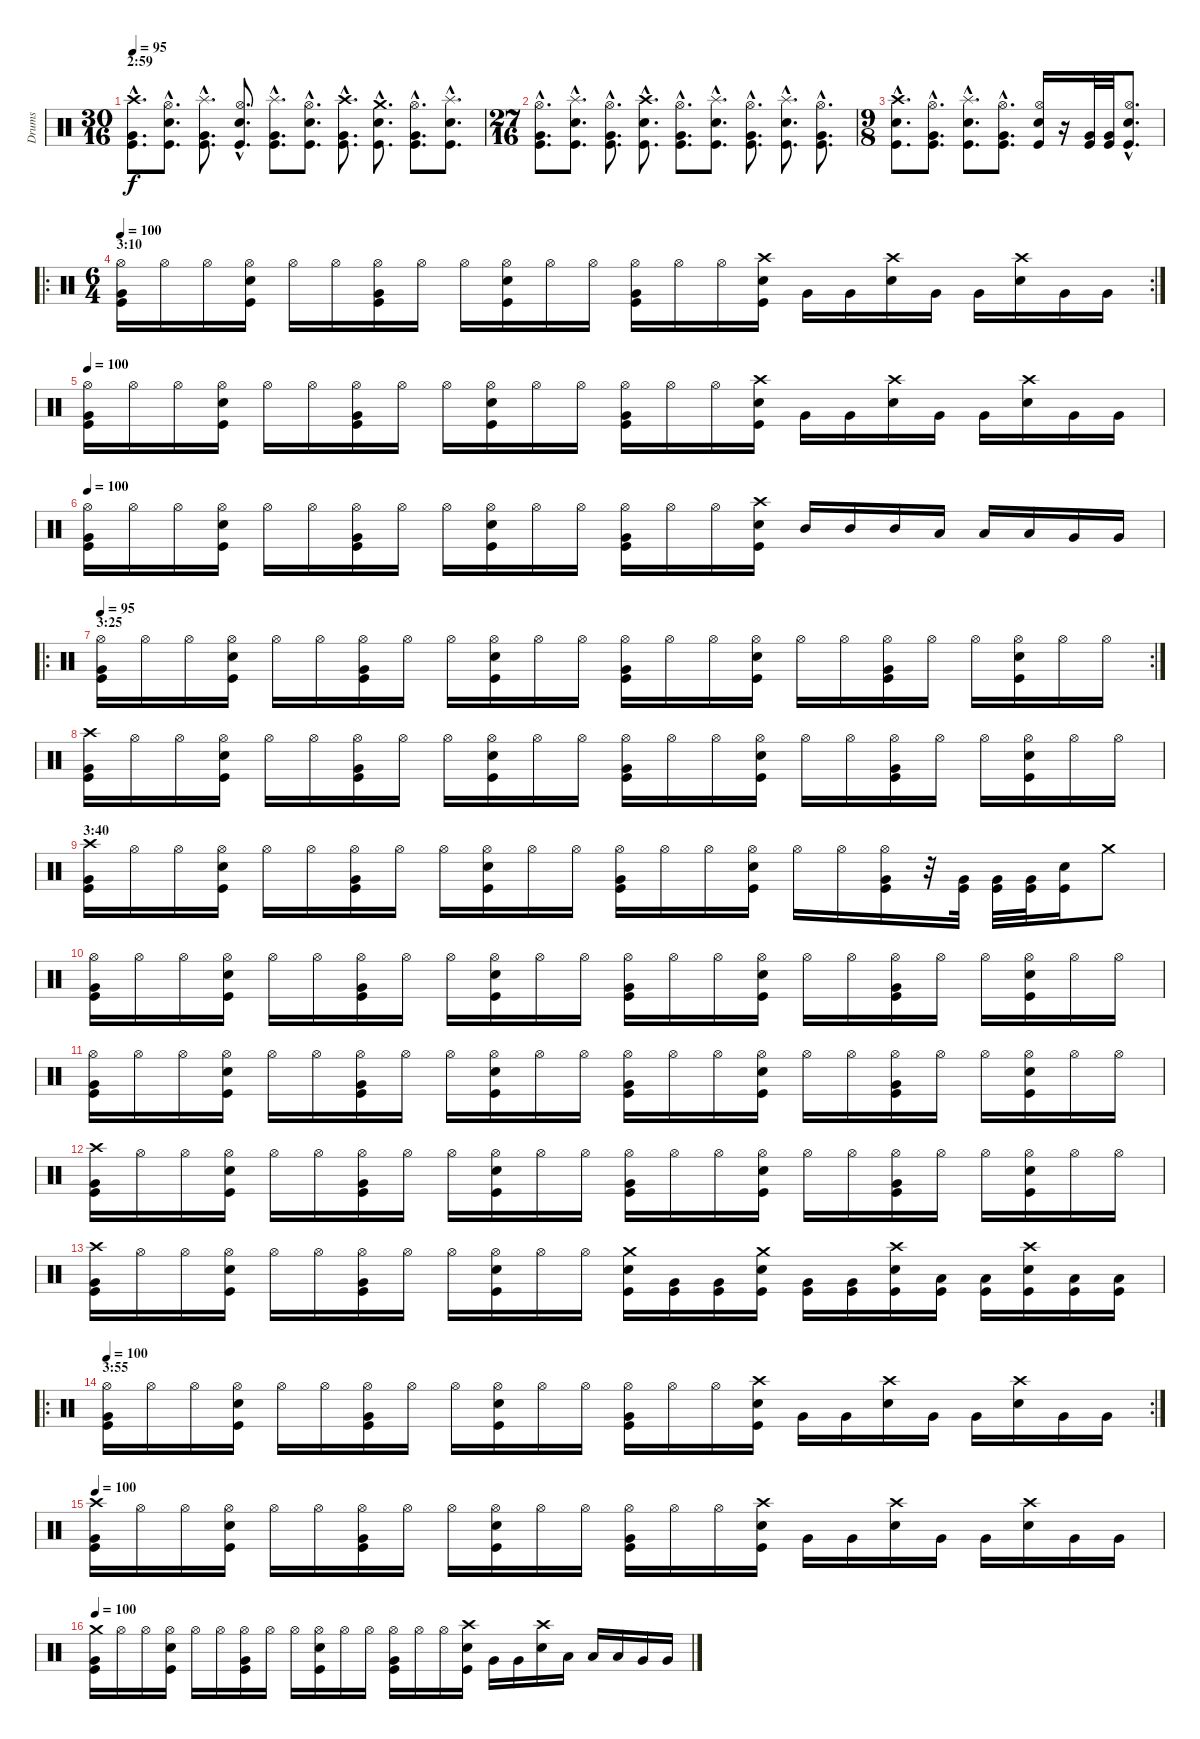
\track ("Drums" "Drums") {instrument percussion}
\staff {score}
\articulation defaults
\ts (30 16)
\section ("" "2:59")
\tempo 95
\clef neutral
\ks c
("Crash high (hit)"{hac} "Very Low Tom (hit)"{hac} "Kick (hit)"{hac}).8{d dy f} ("Hi-Hat (open)"{hac} "Snare (hit) 2"{hac} "Kick (hit)"{hac}).8{d} ("Splash (hit)"{hac} "Very Low Tom (hit)"{hac} "Kick (hit)"{hac}).8{d} ("Hi-Hat (open)"{hac} "Snare (hit) 2"{hac} "Kick (hit)"{hac}).8{d} ("Splash (hit)"{hac} "Very Low Tom (hit)"{hac} "Kick (hit)"{hac}).8{d} ("Hi-Hat (open)"{hac} "Snare (hit) 2"{hac} "Kick (hit)"{hac}).8{d} ("Crash high (hit)"{hac} "Very Low Tom (hit)"{hac} "Kick (hit)"{hac}).8{d} ("Crash medium (hit)"{hac} "Snare (hit) 2"{hac} "Kick (hit)"{hac}).8{d} ("Hi-Hat (open)"{hac} "Very Low Tom (hit)"{hac} "Kick (hit)"{hac}).8{d} ("Splash (hit)"{hac} "Snare (hit) 2"{hac} "Kick (hit)"{hac}).8{d} |
\ts (27 16)
("Hi-Hat (open)"{hac} "Very Low Tom (hit)"{hac} "Kick (hit)"{hac}).8{d} ("Splash (hit)"{hac} "Snare (hit) 2"{hac} "Kick (hit)"{hac}).8{d} ("Hi-Hat (open)"{hac} "Very Low Tom (hit)"{hac} "Kick (hit)"{hac}).8{d} ("Crash high (hit)"{hac} "Snare (hit) 2"{hac} "Kick (hit)"{hac}).8{d} ("Hi-Hat (open)"{hac} "Very Low Tom (hit)"{hac} "Kick (hit)"{hac}).8{d} ("Splash (hit)"{hac} "Snare (hit) 2"{hac} "Kick (hit)"{hac}).8{d} ("Hi-Hat (open)"{hac} "Very Low Tom (hit)"{hac} "Kick (hit)"{hac}).8{d} ("Splash (hit)"{hac} "Snare (hit) 2"{hac} "Kick (hit)"{hac}).8{d} ("Hi-Hat (open)"{hac} "Very Low Tom (hit)"{hac} "Kick (hit)"{hac}).8{d} |
\ts (9 8)
("Crash high (hit)"{hac} "Snare (hit) 2"{hac} "Kick (hit)"{hac}).8{d} ("Hi-Hat (open)"{hac} "Very Low Tom (hit)"{hac} "Kick (hit)"{hac}).8{d} ("Splash (hit)"{hac} "Snare (hit) 2"{hac} "Kick (hit)"{hac}).8{d} ("Hi-Hat (open)"{hac} "Very Low Tom (hit)"{hac} "Kick (hit)"{hac}).8{d} ("Hi-Hat (open)" "Snare (hit) 2" "Kick (hit)").16 r.16 ("Very Low Tom (hit)" "Kick (hit)").32 ("Very Low Tom (hit)" "Kick (hit)").32 ("Hi-Hat (open)"{hac} "Snare (hit) 2"{hac} "Kick (hit)"{hac}).8{d} |
\ro
\rc 2
\ts (6 4)
\section ("" "3:10")
\tempo 100
("Hi-Hat (open)" "Very Low Tom (hit)" "Kick (hit)").16 "Hi-Hat (open)".16 "Hi-Hat (open)".16 ("Hi-Hat (open)" "Snare (hit) 2" "Kick (hit)").16 "Hi-Hat (open)".16 "Hi-Hat (open)".16 ("Hi-Hat (open)" "Very Low Tom (hit)" "Kick (hit)").16 "Hi-Hat (open)".16 "Hi-Hat (open)".16 ("Hi-Hat (open)" "Snare (hit) 2" "Kick (hit)").16 "Hi-Hat (open)".16 "Hi-Hat (open)".16 ("Hi-Hat (open)" "Very Low Tom (hit)" "Kick (hit)").16 "Hi-Hat (open)".16 "Hi-Hat (open)".16 ("Crash high (hit)" "Snare (hit) 2" "Kick (hit)").16 "Very Low Tom (hit)".16 "Very Low Tom (hit)".16 ("Crash high (hit)" "Snare (hit) 2").16 "Very Low Tom (hit)".16 "Very Low Tom (hit)".16 ("Crash high (hit)" "Snare (hit) 2").16 "Very Low Tom (hit)".16 "Very Low Tom (hit)".16 |
\tempo 100
("Hi-Hat (open)" "Very Low Tom (hit)" "Kick (hit)").16 "Hi-Hat (open)".16 "Hi-Hat (open)".16 ("Hi-Hat (open)" "Snare (hit) 2" "Kick (hit)").16 "Hi-Hat (open)".16 "Hi-Hat (open)".16 ("Hi-Hat (open)" "Very Low Tom (hit)" "Kick (hit)").16 "Hi-Hat (open)".16 "Hi-Hat (open)".16 ("Hi-Hat (open)" "Snare (hit) 2" "Kick (hit)").16 "Hi-Hat (open)".16 "Hi-Hat (open)".16 ("Hi-Hat (open)" "Very Low Tom (hit)" "Kick (hit)").16 "Hi-Hat (open)".16 "Hi-Hat (open)".16 ("Crash high (hit)" "Snare (hit) 2" "Kick (hit)").16 "Very Low Tom (hit)".16 "Very Low Tom (hit)".16 ("Crash high (hit)" "Snare (hit) 2").16 "Very Low Tom (hit)".16 "Very Low Tom (hit)".16 ("Crash high (hit)" "Snare (hit) 2").16 "Very Low Tom (hit)".16 "Very Low Tom (hit)".16 |
\tempo 100
("Hi-Hat (open)" "Very Low Tom (hit)" "Kick (hit)").16 "Hi-Hat (open)".16 "Hi-Hat (open)".16 ("Hi-Hat (open)" "Snare (hit) 2" "Kick (hit)").16 "Hi-Hat (open)".16 "Hi-Hat (open)".16 ("Hi-Hat (open)" "Very Low Tom (hit)" "Kick (hit)").16 "Hi-Hat (open)".16 "Hi-Hat (open)".16 ("Hi-Hat (open)" "Snare (hit) 2" "Kick (hit)").16 "Hi-Hat (open)".16 "Hi-Hat (open)".16 ("Hi-Hat (open)" "Very Low Tom (hit)" "Kick (hit)").16 "Hi-Hat (open)".16 "Hi-Hat (open)".16 ("Crash high (hit)" "Snare (hit) 2" "Kick (hit)").16 "Mid Tom (hit)".16 "Mid Tom (hit)".16 "Mid Tom (hit)".16 "Low Tom (hit)".16 "Low Tom (hit)".16 "Low Tom (hit)".16 "Very Low Tom (hit)".16 "Very Low Tom (hit)".16 |
\ro
\rc 2
\section ("" "3:25")
\tempo 95
("Hi-Hat (open)" "Very Low Tom (hit)" "Kick (hit)").16 "Hi-Hat (open)".16 "Hi-Hat (open)".16 ("Hi-Hat (open)" "Snare (hit) 2" "Kick (hit)").16 "Hi-Hat (open)".16 "Hi-Hat (open)".16 ("Hi-Hat (open)" "Very Low Tom (hit)" "Kick (hit)").16 "Hi-Hat (open)".16 "Hi-Hat (open)".16 ("Hi-Hat (open)" "Snare (hit) 2" "Kick (hit)").16 "Hi-Hat (open)".16 "Hi-Hat (open)".16 ("Hi-Hat (open)" "Very Low Tom (hit)" "Kick (hit)").16 "Hi-Hat (open)".16 "Hi-Hat (open)".16 ("Hi-Hat (open)" "Snare (hit) 2" "Kick (hit)").16 "Hi-Hat (open)".16 "Hi-Hat (open)".16 ("Hi-Hat (open)" "Very Low Tom (hit)" "Kick (hit)").16 "Hi-Hat (open)".16 "Hi-Hat (open)".16 ("Hi-Hat (open)" "Snare (hit) 2" "Kick (hit)").16 "Hi-Hat (open)".16 "Hi-Hat (open)".16 |
("Crash high (hit)" "Very Low Tom (hit)" "Kick (hit)").16 "Hi-Hat (open)".16 "Hi-Hat (open)".16 ("Hi-Hat (open)" "Snare (hit) 2" "Kick (hit)").16 "Hi-Hat (open)".16 "Hi-Hat (open)".16 ("Hi-Hat (open)" "Very Low Tom (hit)" "Kick (hit)").16 "Hi-Hat (open)".16 "Hi-Hat (open)".16 ("Hi-Hat (open)" "Snare (hit) 2" "Kick (hit)").16 "Hi-Hat (open)".16 "Hi-Hat (open)".16 ("Hi-Hat (open)" "Very Low Tom (hit)" "Kick (hit)").16 "Hi-Hat (open)".16 "Hi-Hat (open)".16 ("Hi-Hat (open)" "Snare (hit) 2" "Kick (hit)").16 "Hi-Hat (open)".16 "Hi-Hat (open)".16 ("Hi-Hat (open)" "Very Low Tom (hit)" "Kick (hit)").16 "Hi-Hat (open)".16 "Hi-Hat (open)".16 ("Hi-Hat (open)" "Snare (hit) 2" "Kick (hit)").16 "Hi-Hat (open)".16 "Hi-Hat (open)".16 |
\section ("" "3:40")
("Crash high (hit)" "Very Low Tom (hit)" "Kick (hit)").16 "Hi-Hat (open)".16 "Hi-Hat (open)".16 ("Hi-Hat (open)" "Snare (hit) 2" "Kick (hit)").16 "Hi-Hat (open)".16 "Hi-Hat (open)".16 ("Hi-Hat (open)" "Very Low Tom (hit)" "Kick (hit)").16 "Hi-Hat (open)".16 "Hi-Hat (open)".16 ("Hi-Hat (open)" "Snare (hit) 2" "Kick (hit)").16 "Hi-Hat (open)".16 "Hi-Hat (open)".16 ("Hi-Hat (open)" "Very Low Tom (hit)" "Kick (hit)").16 "Hi-Hat (open)".16 "Hi-Hat (open)".16 ("Hi-Hat (open)" "Snare (hit) 2" "Kick (hit)").16 "Hi-Hat (open)".16 "Hi-Hat (open)".16 ("Hi-Hat (open)" "Very Low Tom (hit)" "Kick (hit)").16 r.32 ("Very Low Tom (hit)" "Kick (hit)").32 ("Very Low Tom (hit)" "Kick (hit)").32 ("Very Low Tom (hit)" "Kick (hit)").32 ("Snare (hit) 2" "Kick (hit)").16 "Crash medium (hit)".8 |
("Hi-Hat (open)" "Very Low Tom (hit)" "Kick (hit)").16 "Hi-Hat (open)".16 "Hi-Hat (open)".16 ("Hi-Hat (open)" "Snare (hit) 2" "Kick (hit)").16 "Hi-Hat (open)".16 "Hi-Hat (open)".16 ("Hi-Hat (open)" "Very Low Tom (hit)" "Kick (hit)").16 "Hi-Hat (open)".16 "Hi-Hat (open)".16 ("Hi-Hat (open)" "Snare (hit) 2" "Kick (hit)").16 "Hi-Hat (open)".16 "Hi-Hat (open)".16 ("Hi-Hat (open)" "Very Low Tom (hit)" "Kick (hit)").16 "Hi-Hat (open)".16 "Hi-Hat (open)".16 ("Hi-Hat (open)" "Snare (hit) 2" "Kick (hit)").16 "Hi-Hat (open)".16 "Hi-Hat (open)".16 ("Hi-Hat (open)" "Very Low Tom (hit)" "Kick (hit)").16 "Hi-Hat (open)".16 "Hi-Hat (open)".16 ("Hi-Hat (open)" "Snare (hit) 2" "Kick (hit)").16 "Hi-Hat (open)".16 "Hi-Hat (open)".16 |
("Hi-Hat (open)" "Very Low Tom (hit)" "Kick (hit)").16 "Hi-Hat (open)".16 "Hi-Hat (open)".16 ("Hi-Hat (open)" "Snare (hit) 2" "Kick (hit)").16 "Hi-Hat (open)".16 "Hi-Hat (open)".16 ("Hi-Hat (open)" "Very Low Tom (hit)" "Kick (hit)").16 "Hi-Hat (open)".16 "Hi-Hat (open)".16 ("Hi-Hat (open)" "Snare (hit) 2" "Kick (hit)").16 "Hi-Hat (open)".16 "Hi-Hat (open)".16 ("Hi-Hat (open)" "Very Low Tom (hit)" "Kick (hit)").16 "Hi-Hat (open)".16 "Hi-Hat (open)".16 ("Hi-Hat (open)" "Snare (hit) 2" "Kick (hit)").16 "Hi-Hat (open)".16 "Hi-Hat (open)".16 ("Hi-Hat (open)" "Very Low Tom (hit)" "Kick (hit)").16 "Hi-Hat (open)".16 "Hi-Hat (open)".16 ("Hi-Hat (open)" "Snare (hit) 2" "Kick (hit)").16 "Hi-Hat (open)".16 "Hi-Hat (open)".16 |
("Crash high (hit)" "Very Low Tom (hit)" "Kick (hit)").16 "Hi-Hat (open)".16 "Hi-Hat (open)".16 ("Hi-Hat (open)" "Snare (hit) 2" "Kick (hit)").16 "Hi-Hat (open)".16 "Hi-Hat (open)".16 ("Hi-Hat (open)" "Very Low Tom (hit)" "Kick (hit)").16 "Hi-Hat (open)".16 "Hi-Hat (open)".16 ("Hi-Hat (open)" "Snare (hit) 2" "Kick (hit)").16 "Hi-Hat (open)".16 "Hi-Hat (open)".16 ("Hi-Hat (open)" "Very Low Tom (hit)" "Kick (hit)").16 "Hi-Hat (open)".16 "Hi-Hat (open)".16 ("Hi-Hat (open)" "Snare (hit) 2" "Kick (hit)").16 "Hi-Hat (open)".16 "Hi-Hat (open)".16 ("Hi-Hat (open)" "Very Low Tom (hit)" "Kick (hit)").16 "Hi-Hat (open)".16 "Hi-Hat (open)".16 ("Hi-Hat (open)" "Snare (hit) 2" "Kick (hit)").16 "Hi-Hat (open)".16 "Hi-Hat (open)".16 |
("Crash high (hit)" "Very Low Tom (hit)" "Kick (hit)").16 "Hi-Hat (open)".16 "Hi-Hat (open)".16 ("Hi-Hat (open)" "Snare (hit) 2" "Kick (hit)").16 "Hi-Hat (open)".16 "Hi-Hat (open)".16 ("Hi-Hat (open)" "Very Low Tom (hit)" "Kick (hit)").16 "Hi-Hat (open)".16 "Hi-Hat (open)".16 ("Hi-Hat (open)" "Snare (hit) 2" "Kick (hit)").16 "Hi-Hat (open)".16 "Hi-Hat (open)".16 ("Crash medium (hit)" "Snare (hit) 2" "Kick (hit)").16 ("Very Low Tom (hit)" "Kick (hit)").16 ("Very Low Tom (hit)" "Kick (hit)").16 ("Crash medium (hit)" "Snare (hit) 2" "Kick (hit)").16 ("Very Low Tom (hit)" "Kick (hit)").16 ("Very Low Tom (hit)" "Kick (hit)").16 ("Crash high (hit)" "Snare (hit) 2" "Kick (hit)").16 ("Low Tom (hit)" "Kick (hit)").16 ("Low Tom (hit)" "Kick (hit)").16 ("Crash high (hit)" "Snare (hit) 2" "Kick (hit)").16 ("Low Tom (hit)" "Kick (hit)").16 ("Low Tom (hit)" "Kick (hit)").16 |
\ro
\rc 2
\section ("" "3:55")
\tempo 100
("Hi-Hat (open)" "Very Low Tom (hit)" "Kick (hit)").16 "Hi-Hat (open)".16 "Hi-Hat (open)".16 ("Hi-Hat (open)" "Snare (hit) 2" "Kick (hit)").16 "Hi-Hat (open)".16 "Hi-Hat (open)".16 ("Hi-Hat (open)" "Very Low Tom (hit)" "Kick (hit)").16 "Hi-Hat (open)".16 "Hi-Hat (open)".16 ("Hi-Hat (open)" "Snare (hit) 2" "Kick (hit)").16 "Hi-Hat (open)".16 "Hi-Hat (open)".16 ("Hi-Hat (open)" "Very Low Tom (hit)" "Kick (hit)").16 "Hi-Hat (open)".16 "Hi-Hat (open)".16 ("Crash high (hit)" "Snare (hit) 2" "Kick (hit)").16 "Very Low Tom (hit)".16 "Very Low Tom (hit)".16 ("Crash high (hit)" "Snare (hit) 2").16 "Very Low Tom (hit)".16 "Very Low Tom (hit)".16 ("Crash high (hit)" "Snare (hit) 2").16 "Very Low Tom (hit)".16 "Very Low Tom (hit)".16 |
\tempo 100
("Crash high (hit)" "Very Low Tom (hit)" "Kick (hit)").16 "Hi-Hat (open)".16 "Hi-Hat (open)".16 ("Hi-Hat (open)" "Snare (hit) 2" "Kick (hit)").16 "Hi-Hat (open)".16 "Hi-Hat (open)".16 ("Hi-Hat (open)" "Very Low Tom (hit)" "Kick (hit)").16 "Hi-Hat (open)".16 "Hi-Hat (open)".16 ("Hi-Hat (open)" "Snare (hit) 2" "Kick (hit)").16 "Hi-Hat (open)".16 "Hi-Hat (open)".16 ("Hi-Hat (open)" "Very Low Tom (hit)" "Kick (hit)").16 "Hi-Hat (open)".16 "Hi-Hat (open)".16 ("Crash high (hit)" "Snare (hit) 2" "Kick (hit)").16 "Very Low Tom (hit)".16 "Very Low Tom (hit)".16 ("Crash high (hit)" "Snare (hit) 2").16 "Very Low Tom (hit)".16 "Very Low Tom (hit)".16 ("Crash high (hit)" "Snare (hit) 2").16 "Very Low Tom (hit)".16 "Very Low Tom (hit)".16 |
\tempo 100
("Crash medium (hit)" "Very Low Tom (hit)" "Kick (hit)").16 "Hi-Hat (open)".16 "Hi-Hat (open)".16 ("Hi-Hat (open)" "Snare (hit) 2" "Kick (hit)").16 "Hi-Hat (open)".16 "Hi-Hat (open)".16 ("Hi-Hat (open)" "Very Low Tom (hit)" "Kick (hit)").16 "Hi-Hat (open)".16 "Hi-Hat (open)".16 ("Hi-Hat (open)" "Snare (hit) 2" "Kick (hit)").16 "Hi-Hat (open)".16 "Hi-Hat (open)".16 ("Hi-Hat (open)" "Very Low Tom (hit)" "Kick (hit)").16 "Hi-Hat (open)".16 "Hi-Hat (open)".16 ("Crash high (hit)" "Snare (hit) 2" "Kick (hit)").16 "Very Low Tom (hit)".16 "Very Low Tom (hit)".16 ("Crash high (hit)" "Snare (hit) 2").16 "Low Tom (hit)".16 "Low Tom (hit)".16 "Low Tom (hit)".16 "Very Low Tom (hit)".16 "Very Low Tom (hit)".16
